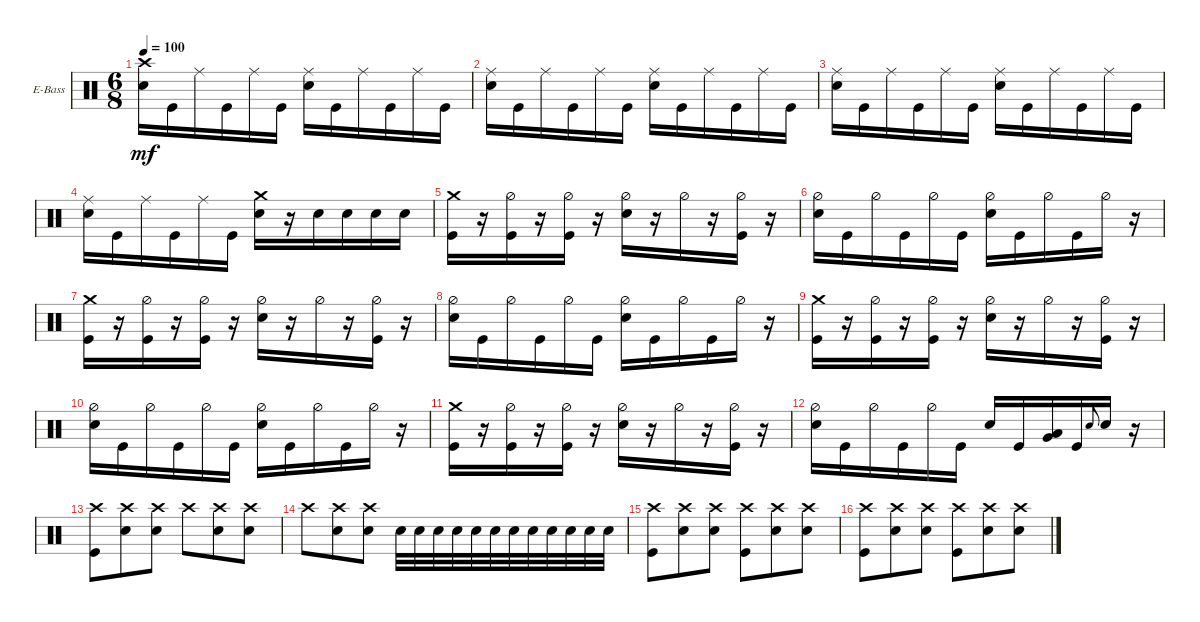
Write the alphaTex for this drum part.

\defaultSystemsLayout 4
\bracketExtendMode groupsimilarinstruments
\firstSystemTrackNameOrientation horizontal
\otherSystemsTrackNameOrientation horizontal
\track ("Drums" "E-Bass") {instrument percussion}
\staff {score}
\articulation defaults
\ts (6 8)
\tempo 100
\clef neutral
\ks c
("Snare (hit) 2" "Crash high (hit)").16{dy mf} "Kick (hit)".16 "Ride (middle)".16 "Kick (hit)".16 "Ride (middle)".16 "Kick (hit)".16 ("Snare (hit) 2" "Ride (middle)").16 "Kick (hit)".16 "Ride (middle)".16 "Kick (hit)".16 "Ride (middle)".16 "Kick (hit)".16 |
("Snare (hit) 2" "Ride (middle)").16 "Kick (hit)".16 "Ride (middle)".16 "Kick (hit)".16 "Ride (middle)".16 "Kick (hit)".16 ("Snare (hit) 2" "Ride (middle)").16 "Kick (hit)".16 "Ride (middle)".16 "Kick (hit)".16 "Ride (middle)".16 "Kick (hit)".16 |
("Snare (hit) 2" "Ride (middle)").16 "Kick (hit)".16 "Ride (middle)".16 "Kick (hit)".16 "Ride (middle)".16 "Kick (hit)".16 ("Snare (hit) 2" "Ride (middle)").16 "Kick (hit)".16 "Ride (middle)".16 "Kick (hit)".16 "Ride (middle)".16 "Kick (hit)".16 |
("Snare (hit) 2" "Ride (middle)").16 "Kick (hit)".16 "Ride (middle)".16 "Kick (hit)".16 "Ride (middle)".16 "Kick (hit)".16 ("Snare (hit) 2" "Crash medium (hit)").16 r.16 "Snare (hit) 2".16 "Snare (hit) 2".16 "Snare (hit) 2".16 "Snare (hit) 2".16 |
("Crash medium (hit)" "Kick (hit)").16 r.16 ("Hi-Hat (half)" "Kick (hit)").16 r.16 ("Hi-Hat (half)" "Kick (hit)").16 r.16 ("Hi-Hat (half)" "Snare (hit) 2").16 r.16 "Hi-Hat (half)".16 r.16 ("Hi-Hat (half)" "Kick (hit)").16 r.16 |
("Hi-Hat (half)" "Snare (hit) 2").16 "Kick (hit)".16 "Hi-Hat (half)".16 "Kick (hit)".16 "Hi-Hat (half)".16 "Kick (hit)".16 ("Hi-Hat (half)" "Snare (hit) 2").16 "Kick (hit)".16 "Hi-Hat (half)".16 "Kick (hit)".16 "Hi-Hat (half)".16 r.16 |
("Crash medium (hit)" "Kick (hit)").16 r.16 ("Hi-Hat (half)" "Kick (hit)").16 r.16 ("Hi-Hat (half)" "Kick (hit)").16 r.16 ("Hi-Hat (half)" "Snare (hit) 2").16 r.16 "Hi-Hat (half)".16 r.16 ("Hi-Hat (half)" "Kick (hit)").16 r.16 |
("Hi-Hat (half)" "Snare (hit) 2").16 "Kick (hit)".16 "Hi-Hat (half)".16 "Kick (hit)".16 "Hi-Hat (half)".16 "Kick (hit)".16 ("Hi-Hat (half)" "Snare (hit) 2").16 "Kick (hit)".16 "Hi-Hat (half)".16 "Kick (hit)".16 "Hi-Hat (half)".16 r.16 |
("Crash medium (hit)" "Kick (hit)").16 r.16 ("Hi-Hat (half)" "Kick (hit)").16 r.16 ("Hi-Hat (half)" "Kick (hit)").16 r.16 ("Hi-Hat (half)" "Snare (hit) 2").16 r.16 "Hi-Hat (half)".16 r.16 ("Hi-Hat (half)" "Kick (hit)").16 r.16 |
("Hi-Hat (half)" "Snare (hit) 2").16 "Kick (hit)".16 "Hi-Hat (half)".16 "Kick (hit)".16 "Hi-Hat (half)".16 "Kick (hit)".16 ("Hi-Hat (half)" "Snare (hit) 2").16 "Kick (hit)".16 "Hi-Hat (half)".16 "Kick (hit)".16 "Hi-Hat (half)".16 r.16 |
("Crash medium (hit)" "Kick (hit)").16 r.16 ("Hi-Hat (half)" "Kick (hit)").16 r.16 ("Hi-Hat (half)" "Kick (hit)").16 r.16 ("Hi-Hat (half)" "Snare (hit) 2").16 r.16 "Hi-Hat (half)".16 r.16 ("Hi-Hat (half)" "Kick (hit)").16 r.16 |
("Hi-Hat (half)" "Snare (hit) 2").16 "Kick (hit)".16 "Hi-Hat (half)".16 "Kick (hit)".16 "Hi-Hat (half)".16 "Kick (hit)".16 "Snare (hit) 2".16 "Kick (hit)".16 ("Very Low Tom (hit)" "Low Tom (hit)").16 "Kick (hit)".16 "Snare (hit) 2".8{gr onbeat} "Snare (hit) 2".16 r.16 |
("Crash high (hit)" "Kick (hit)").8 ("Crash high (hit)" "Snare (hit) 2").8 ("Crash high (hit)" "Snare (hit) 2").8 "Crash high (hit)".8 ("Snare (hit) 2" "Crash high (hit)").8 ("Snare (hit) 2" "Crash high (hit)").8 |
"Crash high (hit)".8 ("Snare (hit) 2" "Crash high (hit)").8 ("Snare (hit) 2" "Crash high (hit)").8 "Snare (hit) 2".32 "Snare (hit) 2".32 "Snare (hit) 2".32 "Snare (hit) 2".32 "Snare (hit) 2".32 "Snare (hit) 2".32 "Snare (hit) 2".32 "Snare (hit) 2".32 "Snare (hit) 2".32 "Snare (hit) 2".32 "Snare (hit) 2".32 "Snare (hit) 2".32 |
("Crash high (hit)" "Kick (hit)").8 ("Crash high (hit)" "Snare (hit) 2").8 ("Crash high (hit)" "Snare (hit) 2").8 ("Crash high (hit)" "Kick (hit)").8 ("Snare (hit) 2" "Crash high (hit)").8 ("Snare (hit) 2" "Crash high (hit)").8 |
("Crash high (hit)" "Kick (hit)").8 ("Crash high (hit)" "Snare (hit) 2").8 ("Crash high (hit)" "Snare (hit) 2").8 ("Crash high (hit)" "Kick (hit)").8 ("Snare (hit) 2" "Crash high (hit)").8 ("Snare (hit) 2" "Crash high (hit)").8
